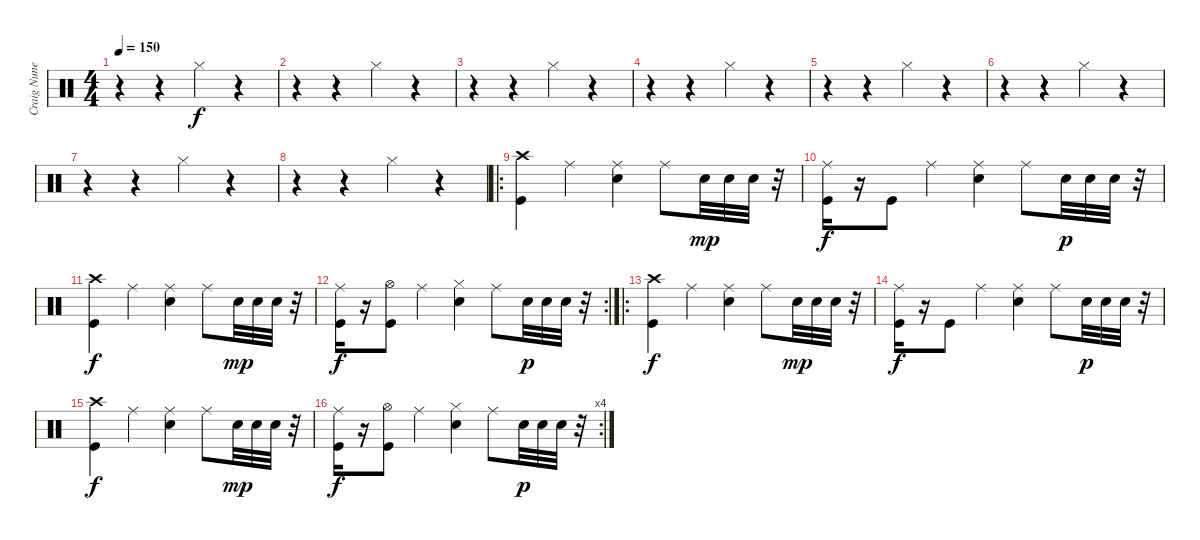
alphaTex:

\track ("Craig Nunenmacher (Drums)" "Craig Nune") {instrument percussion}
\staff {score}
\articulation defaults
\ts (4 4)
\tempo 150
\clef neutral
\ks c
r.4{dy f} r.4 "Hi-Hat (closed)".4 r.4 |
r.4 r.4 "Hi-Hat (closed)".4 r.4 |
r.4 r.4 "Hi-Hat (closed)".4 r.4 |
r.4 r.4 "Hi-Hat (closed)".4 r.4 |
r.4 r.4 "Hi-Hat (closed)".4 r.4 |
r.4 r.4 "Hi-Hat (closed)".4 r.4 |
r.4 r.4 "Hi-Hat (closed)".4 r.4 |
r.4 r.4 "Hi-Hat (closed)".4 r.4 |
\ro
("Crash high (hit)" "Kick (hit)").4 "Ride (middle)".4 ("Ride (middle)" "Snare (hit) 2").4 "Ride (middle)".8 "Snare (hit) 2".32{dy mp} "Snare (hit) 2".32 "Snare (hit) 2".32 r.32 |
("Ride (middle)" "Kick (hit)").16{dy f} r.16 "Kick (hit)".8 "Ride (middle)".4 ("Ride (middle)" "Snare (hit) 2").4 "Ride (middle)".8 "Snare (hit) 2".32{dy p} "Snare (hit) 2".32 "Snare (hit) 2".32 r.32 |
("Crash high (hit)" "Kick (hit)").4{dy f} "Ride (middle)".4 ("Ride (middle)" "Snare (hit) 2").4 "Ride (middle)".8 "Snare (hit) 2".32{dy mp} "Snare (hit) 2".32 "Snare (hit) 2".32 r.32 |
\rc 2
("Ride (middle)" "Kick (hit)").16{dy f} r.16 ("Hi-Hat (open)" "Kick (hit)").8 "Ride (middle)".4 ("Hi-Hat (closed)" "Snare (hit) 2").4 "Ride (middle)".8 "Snare (hit) 2".32{dy p} "Snare (hit) 2".32 "Snare (hit) 2".32 r.32 |
\ro
("Crash high (hit)" "Kick (hit)").4{dy f} "Ride (middle)".4 ("Ride (middle)" "Snare (hit) 2").4 "Ride (middle)".8 "Snare (hit) 2".32{dy mp} "Snare (hit) 2".32 "Snare (hit) 2".32 r.32 |
("Ride (middle)" "Kick (hit)").16{dy f} r.16 "Kick (hit)".8 "Ride (middle)".4 ("Ride (middle)" "Snare (hit) 2").4 "Ride (middle)".8 "Snare (hit) 2".32{dy p} "Snare (hit) 2".32 "Snare (hit) 2".32 r.32 |
("Crash high (hit)" "Kick (hit)").4{dy f} "Ride (middle)".4 ("Ride (middle)" "Snare (hit) 2").4 "Ride (middle)".8 "Snare (hit) 2".32{dy mp} "Snare (hit) 2".32 "Snare (hit) 2".32 r.32 |
\rc 4
("Ride (middle)" "Kick (hit)").16{dy f} r.16 ("Hi-Hat (open)" "Kick (hit)").8 "Ride (middle)".4 ("Hi-Hat (closed)" "Snare (hit) 2").4 "Ride (middle)".8 "Snare (hit) 2".32{dy p} "Snare (hit) 2".32 "Snare (hit) 2".32 r.32
